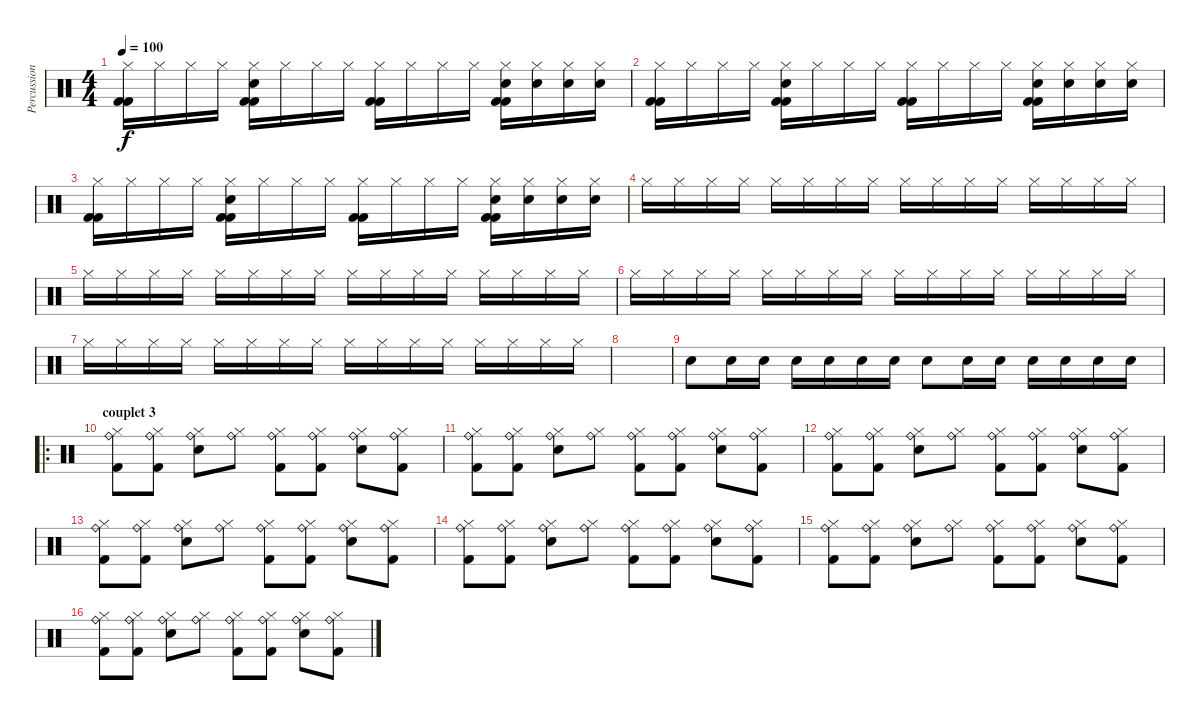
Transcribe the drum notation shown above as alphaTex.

\track ("Percussions" "Percussion") {instrument percussion}
\staff {score}
\articulation defaults
\ts (4 4)
\tempo 100
\clef neutral
\ks c
("Kick (hit) 2" "Kick (hit) 2" "Hi-Hat (closed)").16{dy f} "Hi-Hat (closed)".16 "Hi-Hat (closed)".16 "Hi-Hat (closed)".16 ("Kick (hit) 2" "Kick (hit) 2" "Electric Snare (hit)" "Hi-Hat (closed)").16 "Hi-Hat (closed)".16 "Hi-Hat (closed)".16 "Hi-Hat (closed)".16 ("Kick (hit) 2" "Kick (hit) 2" "Hi-Hat (closed)").16 "Hi-Hat (closed)".16 "Hi-Hat (closed)".16 "Hi-Hat (closed)".16 ("Kick (hit) 2" "Kick (hit) 2" "Electric Snare (hit)" "Hi-Hat (closed)").16 ("Electric Snare (hit)" "Hi-Hat (closed)").16 ("Electric Snare (hit)" "Hi-Hat (closed)").16 ("Electric Snare (hit)" "Hi-Hat (closed)").16 |
("Kick (hit) 2" "Kick (hit) 2" "Hi-Hat (closed)").16 "Hi-Hat (closed)".16 "Hi-Hat (closed)".16 "Hi-Hat (closed)".16 ("Kick (hit) 2" "Kick (hit) 2" "Electric Snare (hit)" "Hi-Hat (closed)").16 "Hi-Hat (closed)".16 "Hi-Hat (closed)".16 "Hi-Hat (closed)".16 ("Kick (hit) 2" "Kick (hit) 2" "Hi-Hat (closed)").16 "Hi-Hat (closed)".16 "Hi-Hat (closed)".16 "Hi-Hat (closed)".16 ("Kick (hit) 2" "Kick (hit) 2" "Electric Snare (hit)" "Hi-Hat (closed)").16 ("Electric Snare (hit)" "Hi-Hat (closed)").16 ("Electric Snare (hit)" "Hi-Hat (closed)").16 ("Electric Snare (hit)" "Hi-Hat (closed)").16 |
("Kick (hit) 2" "Kick (hit) 2" "Hi-Hat (closed)").16 "Hi-Hat (closed)".16 "Hi-Hat (closed)".16 "Hi-Hat (closed)".16 ("Kick (hit) 2" "Kick (hit) 2" "Electric Snare (hit)" "Hi-Hat (closed)").16 "Hi-Hat (closed)".16 "Hi-Hat (closed)".16 "Hi-Hat (closed)".16 ("Kick (hit) 2" "Kick (hit) 2" "Hi-Hat (closed)").16 "Hi-Hat (closed)".16 "Hi-Hat (closed)".16 "Hi-Hat (closed)".16 ("Kick (hit) 2" "Kick (hit) 2" "Electric Snare (hit)" "Hi-Hat (closed)").16 ("Electric Snare (hit)" "Hi-Hat (closed)").16 ("Electric Snare (hit)" "Hi-Hat (closed)").16 ("Electric Snare (hit)" "Hi-Hat (closed)").16 |
"Hi-Hat (closed)".16 "Hi-Hat (closed)".16 "Hi-Hat (closed)".16 "Hi-Hat (closed)".16 "Hi-Hat (closed)".16 "Hi-Hat (closed)".16 "Hi-Hat (closed)".16 "Hi-Hat (closed)".16 "Hi-Hat (closed)".16 "Hi-Hat (closed)".16 "Hi-Hat (closed)".16 "Hi-Hat (closed)".16 "Hi-Hat (closed)".16 "Hi-Hat (closed)".16 "Hi-Hat (closed)".16 "Hi-Hat (closed)".16 |
"Hi-Hat (closed)".16 "Hi-Hat (closed)".16 "Hi-Hat (closed)".16 "Hi-Hat (closed)".16 "Hi-Hat (closed)".16 "Hi-Hat (closed)".16 "Hi-Hat (closed)".16 "Hi-Hat (closed)".16 "Hi-Hat (closed)".16 "Hi-Hat (closed)".16 "Hi-Hat (closed)".16 "Hi-Hat (closed)".16 "Hi-Hat (closed)".16 "Hi-Hat (closed)".16 "Hi-Hat (closed)".16 "Hi-Hat (closed)".16 |
"Hi-Hat (closed)".16 "Hi-Hat (closed)".16 "Hi-Hat (closed)".16 "Hi-Hat (closed)".16 "Hi-Hat (closed)".16 "Hi-Hat (closed)".16 "Hi-Hat (closed)".16 "Hi-Hat (closed)".16 "Hi-Hat (closed)".16 "Hi-Hat (closed)".16 "Hi-Hat (closed)".16 "Hi-Hat (closed)".16 "Hi-Hat (closed)".16 "Hi-Hat (closed)".16 "Hi-Hat (closed)".16 "Hi-Hat (closed)".16 |
"Hi-Hat (closed)".16 "Hi-Hat (closed)".16 "Hi-Hat (closed)".16 "Hi-Hat (closed)".16 "Hi-Hat (closed)".16 "Hi-Hat (closed)".16 "Hi-Hat (closed)".16 "Hi-Hat (closed)".16 "Hi-Hat (closed)".16 "Hi-Hat (closed)".16 "Hi-Hat (closed)".16 "Hi-Hat (closed)".16 "Hi-Hat (closed)".16 "Hi-Hat (closed)".16 "Hi-Hat (closed)".16 "Hi-Hat (closed)".16 |
|
"Snare (hit) 2".8 "Snare (hit) 2".16 "Snare (hit) 2".16 "Snare (hit) 2".16 "Snare (hit) 2".16 "Snare (hit) 2".16 "Snare (hit) 2".16 "Snare (hit) 2".8 "Snare (hit) 2".16 "Snare (hit) 2".16 "Snare (hit) 2".16 "Snare (hit) 2".16 "Snare (hit) 2".16 "Snare (hit) 2".16 |
\ro
\section ("" "couplet 3")
("Kick (hit) 2" "Hi-Hat (closed)" "Ride (bell)").8{volume 8} ("Kick (hit) 2" "Hi-Hat (closed)" "Ride (bell)").8 ("Snare (hit) 2" "Hi-Hat (closed)" "Ride (bell)").8 ("Hi-Hat (closed)" "Ride (bell)").8 ("Kick (hit) 2" "Hi-Hat (closed)" "Ride (bell)").8 ("Kick (hit) 2" "Hi-Hat (closed)" "Ride (bell)").8 ("Snare (hit) 2" "Hi-Hat (closed)" "Ride (bell)").8 ("Kick (hit) 2" "Hi-Hat (closed)" "Ride (bell)").8 |
("Kick (hit) 2" "Hi-Hat (closed)" "Ride (bell)").8 ("Kick (hit) 2" "Hi-Hat (closed)" "Ride (bell)").8 ("Snare (hit) 2" "Hi-Hat (closed)" "Ride (bell)").8 ("Hi-Hat (closed)" "Ride (bell)").8 ("Kick (hit) 2" "Hi-Hat (closed)" "Ride (bell)").8 ("Kick (hit) 2" "Hi-Hat (closed)" "Ride (bell)").8 ("Snare (hit) 2" "Hi-Hat (closed)" "Ride (bell)").8 ("Kick (hit) 2" "Hi-Hat (closed)" "Ride (bell)").8 |
("Kick (hit) 2" "Hi-Hat (closed)" "Ride (bell)").8 ("Kick (hit) 2" "Hi-Hat (closed)" "Ride (bell)").8 ("Snare (hit) 2" "Hi-Hat (closed)" "Ride (bell)").8 ("Hi-Hat (closed)" "Ride (bell)").8 ("Kick (hit) 2" "Hi-Hat (closed)" "Ride (bell)").8 ("Kick (hit) 2" "Hi-Hat (closed)" "Ride (bell)").8 ("Snare (hit) 2" "Hi-Hat (closed)" "Ride (bell)").8 ("Kick (hit) 2" "Hi-Hat (closed)" "Ride (bell)").8 |
("Kick (hit) 2" "Hi-Hat (closed)" "Ride (bell)").8 ("Kick (hit) 2" "Hi-Hat (closed)" "Ride (bell)").8 ("Snare (hit) 2" "Hi-Hat (closed)" "Ride (bell)").8 ("Hi-Hat (closed)" "Ride (bell)").8 ("Kick (hit) 2" "Hi-Hat (closed)" "Ride (bell)").8 ("Kick (hit) 2" "Hi-Hat (closed)" "Ride (bell)").8 ("Snare (hit) 2" "Hi-Hat (closed)" "Ride (bell)").8 ("Kick (hit) 2" "Hi-Hat (closed)" "Ride (bell)").8 |
("Kick (hit) 2" "Hi-Hat (closed)" "Ride (bell)").8 ("Kick (hit) 2" "Hi-Hat (closed)" "Ride (bell)").8 ("Snare (hit) 2" "Hi-Hat (closed)" "Ride (bell)").8 ("Hi-Hat (closed)" "Ride (bell)").8 ("Kick (hit) 2" "Hi-Hat (closed)" "Ride (bell)").8 ("Kick (hit) 2" "Hi-Hat (closed)" "Ride (bell)").8 ("Snare (hit) 2" "Hi-Hat (closed)" "Ride (bell)").8 ("Kick (hit) 2" "Hi-Hat (closed)" "Ride (bell)").8 |
("Kick (hit) 2" "Hi-Hat (closed)" "Ride (bell)").8 ("Kick (hit) 2" "Hi-Hat (closed)" "Ride (bell)").8 ("Snare (hit) 2" "Hi-Hat (closed)" "Ride (bell)").8 ("Hi-Hat (closed)" "Ride (bell)").8 ("Kick (hit) 2" "Hi-Hat (closed)" "Ride (bell)").8 ("Kick (hit) 2" "Hi-Hat (closed)" "Ride (bell)").8 ("Snare (hit) 2" "Hi-Hat (closed)" "Ride (bell)").8 ("Kick (hit) 2" "Hi-Hat (closed)" "Ride (bell)").8 |
("Kick (hit) 2" "Hi-Hat (closed)" "Ride (bell)").8 ("Kick (hit) 2" "Hi-Hat (closed)" "Ride (bell)").8 ("Snare (hit) 2" "Hi-Hat (closed)" "Ride (bell)").8 ("Hi-Hat (closed)" "Ride (bell)").8 ("Kick (hit) 2" "Hi-Hat (closed)" "Ride (bell)").8 ("Kick (hit) 2" "Hi-Hat (closed)" "Ride (bell)").8 ("Snare (hit) 2" "Hi-Hat (closed)" "Ride (bell)").8 ("Kick (hit) 2" "Hi-Hat (closed)" "Ride (bell)").8
